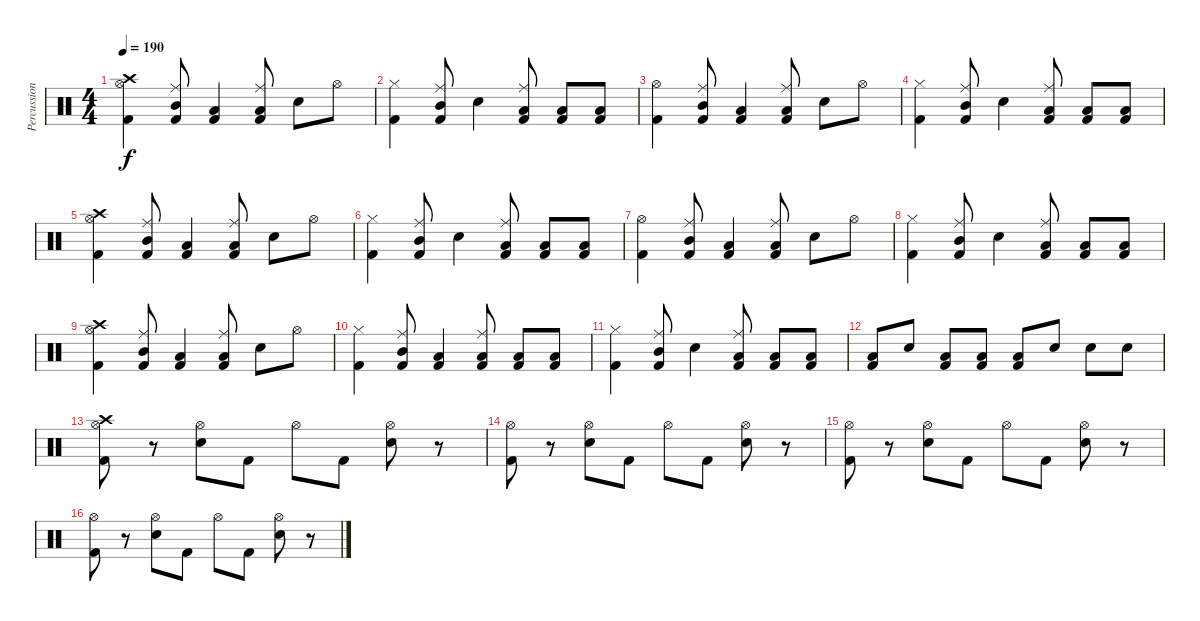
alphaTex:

\track ("Percussioni" "Percussion") {instrument percussion}
\staff {score}
\articulation defaults
\ts (4 4)
\tempo 190
\clef neutral
\ks c
("Kick (hit) 2" "Crash high (hit)" "Hi-Hat (open)").4{dy f} ("Ride (middle)" "Kick (hit) 2" "Mid Tom (hit)").8 ("Low Tom (hit)" "Kick (hit) 2").4 ("Ride (middle)" "Kick (hit) 2" "Low Tom (hit)").8 "Snare (hit) 2".8 "Hi-Hat (open)".8 |
("Kick (hit) 2" "Hi-Hat (closed)").4 ("Ride (middle)" "Kick (hit) 2" "Mid Tom (hit)").8 "Snare (hit) 2".4 ("Ride (middle)" "Kick (hit) 2" "Low Tom (hit)").8 ("Low Tom (hit)" "Kick (hit) 2").8 ("Low Tom (hit)" "Kick (hit) 2").8 |
("Kick (hit) 2" "Hi-Hat (open)").4 ("Ride (middle)" "Kick (hit) 2" "Mid Tom (hit)").8 ("Low Tom (hit)" "Kick (hit) 2").4 ("Ride (middle)" "Kick (hit) 2" "Low Tom (hit)").8 "Snare (hit) 2".8 "Hi-Hat (open)".8 |
("Kick (hit) 2" "Hi-Hat (closed)").4 ("Ride (middle)" "Kick (hit) 2" "Mid Tom (hit)").8 "Snare (hit) 2".4 ("Ride (middle)" "Kick (hit) 2" "Low Tom (hit)").8 ("Low Tom (hit)" "Kick (hit) 2").8 ("Low Tom (hit)" "Kick (hit) 2").8 |
("Kick (hit) 2" "Crash high (hit)" "Hi-Hat (open)").4 ("Ride (middle)" "Kick (hit) 2" "Mid Tom (hit)").8 ("Low Tom (hit)" "Kick (hit) 2").4 ("Ride (middle)" "Kick (hit) 2" "Low Tom (hit)").8 "Snare (hit) 2".8 "Hi-Hat (open)".8 |
("Kick (hit) 2" "Hi-Hat (closed)").4 ("Ride (middle)" "Kick (hit) 2" "Mid Tom (hit)").8 "Snare (hit) 2".4 ("Ride (middle)" "Kick (hit) 2" "Low Tom (hit)").8 ("Low Tom (hit)" "Kick (hit) 2").8 ("Low Tom (hit)" "Kick (hit) 2").8 |
("Kick (hit) 2" "Hi-Hat (open)").4 ("Ride (middle)" "Kick (hit) 2" "Mid Tom (hit)").8 ("Low Tom (hit)" "Kick (hit) 2").4 ("Ride (middle)" "Kick (hit) 2" "Low Tom (hit)").8 "Snare (hit) 2".8 "Hi-Hat (open)".8 |
("Kick (hit) 2" "Hi-Hat (closed)").4 ("Ride (middle)" "Kick (hit) 2" "Mid Tom (hit)").8 "Snare (hit) 2".4 ("Ride (middle)" "Kick (hit) 2" "Low Tom (hit)").8 ("Low Tom (hit)" "Kick (hit) 2").8 ("Low Tom (hit)" "Kick (hit) 2").8 |
("Kick (hit) 2" "Crash high (hit)" "Hi-Hat (open)").4 ("Ride (middle)" "Kick (hit) 2" "Mid Tom (hit)").8 ("Low Tom (hit)" "Kick (hit) 2").4 ("Ride (middle)" "Kick (hit) 2" "Low Tom (hit)").8 "Snare (hit) 2".8 "Hi-Hat (open)".8 |
("Kick (hit) 2" "Hi-Hat (closed)").4 ("Ride (middle)" "Kick (hit) 2" "Mid Tom (hit)").8 ("Low Tom (hit)" "Kick (hit) 2").4 ("Ride (middle)" "Kick (hit) 2" "Low Tom (hit)").8 ("Low Tom (hit)" "Kick (hit) 2").8 ("Low Tom (hit)" "Kick (hit) 2").8 |
("Kick (hit) 2" "Hi-Hat (closed)").4 ("Ride (middle)" "Kick (hit) 2" "Mid Tom (hit)").8 "Snare (hit) 2".4 ("Ride (middle)" "Kick (hit) 2" "Low Tom (hit)").8 ("Low Tom (hit)" "Kick (hit) 2").8 ("Low Tom (hit)" "Kick (hit) 2").8 |
("Kick (hit) 2" "Low Tom (hit)").8 "Snare (hit) 2".8 ("Kick (hit) 2" "Low Tom (hit)").8 ("Kick (hit) 2" "Low Tom (hit)").8 ("Kick (hit) 2" "Low Tom (hit)").8 "Snare (hit) 2".8 "Snare (hit) 2".8 "Snare (hit) 2".8 |
("Hi-Hat (open)" "Crash high (hit)" "Kick (hit) 2").8 r.8 ("Hi-Hat (open)" "Snare (hit) 2").8 "Kick (hit) 2".8 "Hi-Hat (open)".8 "Kick (hit) 2".8 ("Hi-Hat (open)" "Snare (hit) 2").8 r.8 |
("Hi-Hat (open)" "Kick (hit) 2").8 r.8 ("Hi-Hat (open)" "Snare (hit) 2").8 "Kick (hit) 2".8 "Hi-Hat (open)".8 "Kick (hit) 2".8 ("Hi-Hat (open)" "Snare (hit) 2").8 r.8 |
("Hi-Hat (open)" "Kick (hit) 2").8 r.8 ("Hi-Hat (open)" "Snare (hit) 2").8 "Kick (hit) 2".8 "Hi-Hat (open)".8 "Kick (hit) 2".8 ("Hi-Hat (open)" "Snare (hit) 2").8 r.8 |
("Hi-Hat (open)" "Kick (hit) 2").8 r.8 ("Hi-Hat (open)" "Snare (hit) 2").8 "Kick (hit) 2".8 "Hi-Hat (open)".8 "Kick (hit) 2".8 ("Hi-Hat (open)" "Snare (hit) 2").8 r.8
